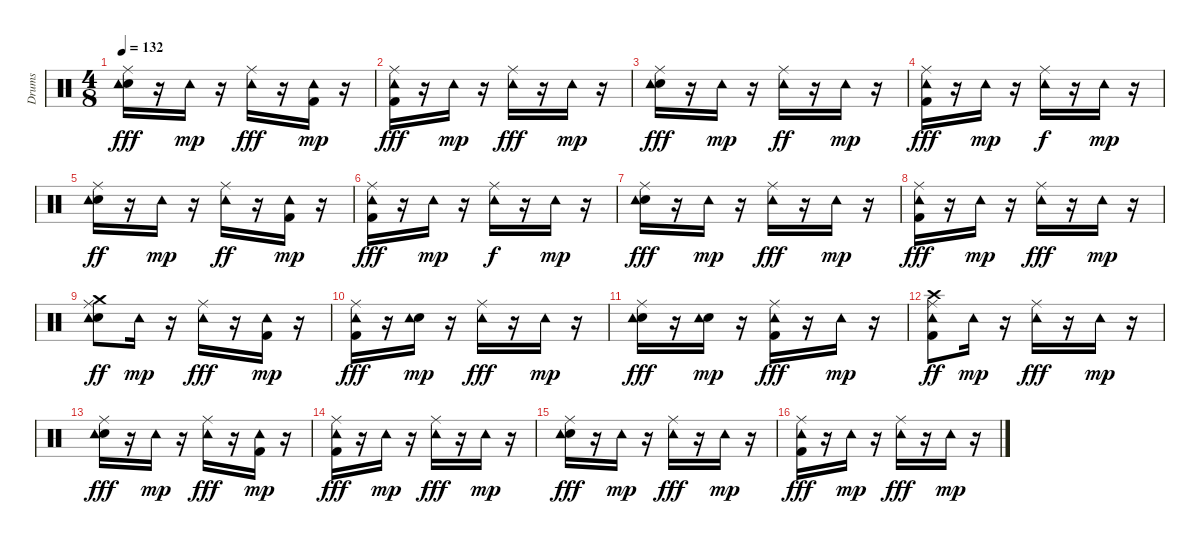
\track ("Drums" "Drums") {instrument percussion}
\staff {score}
\articulation defaults
\ts (4 8)
\tempo 132
\clef neutral
\ks c
("Snare (hit) 2" "Ride (middle)" "Tambourine (hit)").16{dy fff} r.16 "Tambourine (hit)".16{dy mp} r.16 ("Ride (middle)" "Tambourine (hit)").16{dy fff} r.16 ("Kick (hit) 2" "Tambourine (hit)").16{dy mp} r.16 |
("Kick (hit) 2" "Ride (middle)" "Tambourine (hit)").16{dy fff} r.16 "Tambourine (hit)".16{dy mp} r.16 ("Ride (middle)" "Tambourine (hit)").16{dy fff} r.16 "Tambourine (hit)".16{dy mp} r.16 |
("Snare (hit) 2" "Ride (middle)" "Tambourine (hit)").16{dy fff} r.16 "Tambourine (hit)".16{dy mp} r.16 ("Ride (middle)" "Tambourine (hit)").16{dy ff} r.16 "Tambourine (hit)".16{dy mp} r.16 |
("Kick (hit) 2" "Ride (middle)" "Tambourine (hit)").16{dy fff} r.16 "Tambourine (hit)".16{dy mp} r.16 ("Ride (middle)" "Tambourine (hit)").16{dy f} r.16 "Tambourine (hit)".16{dy mp} r.16 |
("Snare (hit) 2" "Ride (middle)" "Tambourine (hit)").16{dy ff} r.16 "Tambourine (hit)".16{dy mp} r.16 ("Ride (middle)" "Tambourine (hit)").16{dy ff} r.16 ("Kick (hit) 2" "Tambourine (hit)").16{dy mp} r.16 |
("Kick (hit) 2" "Ride (middle)" "Tambourine (hit)").16{dy fff} r.16 "Tambourine (hit)".16{dy mp} r.16 ("Ride (middle)" "Tambourine (hit)").16{dy f} r.16 "Tambourine (hit)".16{dy mp} r.16 |
("Snare (hit) 2" "Ride (middle)" "Tambourine (hit)").16{dy fff} r.16 "Tambourine (hit)".16{dy mp} r.16 ("Ride (middle)" "Tambourine (hit)").16{dy fff} r.16 "Tambourine (hit)".16{dy mp} r.16 |
("Kick (hit) 2" "Ride (middle)" "Tambourine (hit)").16{dy fff} r.16 "Tambourine (hit)".16{dy mp} r.16 ("Ride (middle)" "Tambourine (hit)").16{dy fff} r.16 "Tambourine (hit)".16{dy mp} r.16 |
("Snare (hit) 2" "Ride (middle)" "Tambourine (hit)" "Crash medium (hit)").8{dy ff} "Tambourine (hit)".16{dy mp} r.16 ("Ride (middle)" "Tambourine (hit)").16{dy fff} r.16 ("Kick (hit) 2" "Tambourine (hit)").16{dy mp} r.16 |
("Kick (hit) 2" "Ride (middle)" "Tambourine (hit)").16{dy fff} r.16 ("Snare (hit) 2" "Tambourine (hit)").16{dy mp} r.16 ("Ride (middle)" "Tambourine (hit)").16{dy fff} r.16 "Tambourine (hit)".16{dy mp} r.16 |
("Snare (hit) 2" "Ride (middle)" "Tambourine (hit)").16{dy fff} r.16 ("Snare (hit) 2" "Tambourine (hit)").16{dy mp} r.16 ("Kick (hit) 2" "Ride (middle)" "Tambourine (hit)").16{dy fff} r.16 "Tambourine (hit)".16{dy mp} r.16 |
("Kick (hit) 2" "Ride (middle)" "Tambourine (hit)" "Crash high (hit)").8{dy ff} "Tambourine (hit)".16{dy mp} r.16 ("Ride (middle)" "Tambourine (hit)").16{dy fff} r.16 "Tambourine (hit)".16{dy mp} r.16 |
("Snare (hit) 2" "Ride (middle)" "Tambourine (hit)").16{dy fff} r.16 "Tambourine (hit)".16{dy mp} r.16 ("Ride (middle)" "Tambourine (hit)").16{dy fff} r.16 ("Kick (hit) 2" "Tambourine (hit)").16{dy mp} r.16 |
("Kick (hit) 2" "Ride (middle)" "Tambourine (hit)").16{dy fff} r.16 "Tambourine (hit)".16{dy mp} r.16 ("Ride (middle)" "Tambourine (hit)").16{dy fff} r.16 "Tambourine (hit)".16{dy mp} r.16 |
("Snare (hit) 2" "Ride (middle)" "Tambourine (hit)").16{dy fff} r.16 "Tambourine (hit)".16{dy mp} r.16 ("Ride (middle)" "Tambourine (hit)").16{dy fff} r.16 "Tambourine (hit)".16{dy mp} r.16 |
("Kick (hit) 2" "Ride (middle)" "Tambourine (hit)").16{dy fff} r.16 "Tambourine (hit)".16{dy mp} r.16 ("Ride (middle)" "Tambourine (hit)").16{dy fff} r.16 "Tambourine (hit)".16{dy mp} r.16
